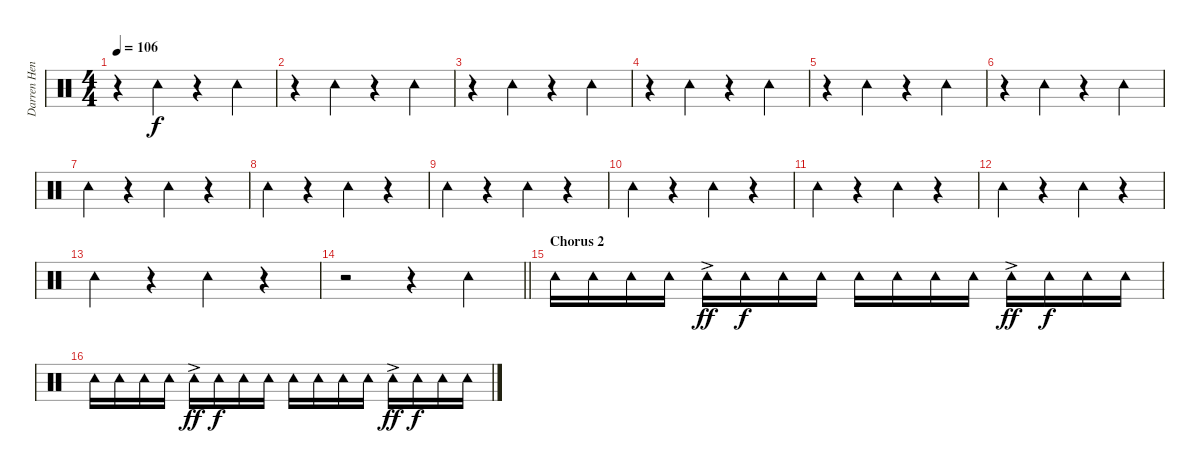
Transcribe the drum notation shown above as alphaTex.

\track ("Darren Henley [Percussion]" "Darren Hen") {instrument percussion}
\staff {score}
\articulation defaults
\ts (4 4)
\tempo 106
\clef neutral
\ks c
r.4{dy f} "Tambourine (hit)".4 r.4 "Tambourine (hit)".4 |
r.4 "Tambourine (hit)".4 r.4 "Tambourine (hit)".4 |
r.4 "Tambourine (hit)".4 r.4 "Tambourine (hit)".4 |
r.4 "Tambourine (hit)".4 r.4 "Tambourine (hit)".4 |
r.4 "Tambourine (hit)".4 r.4 "Tambourine (hit)".4 |
r.4 "Tambourine (hit)".4 r.4 "Tambourine (hit)".4 |
"Tambourine (hit)".4 r.4 "Tambourine (hit)".4 r.4 |
"Tambourine (hit)".4 r.4 "Tambourine (hit)".4 r.4 |
"Tambourine (hit)".4 r.4 "Tambourine (hit)".4 r.4 |
"Tambourine (hit)".4 r.4 "Tambourine (hit)".4 r.4 |
"Tambourine (hit)".4 r.4 "Tambourine (hit)".4 r.4 |
"Tambourine (hit)".4 r.4 "Tambourine (hit)".4 r.4 |
"Tambourine (hit)".4 r.4 "Tambourine (hit)".4 r.4 |
\barLineRight lightlight
r.2 r.4 "Tambourine (hit)".4 |
\section ("" "Chorus 2")
"Tambourine (hit)".16 "Tambourine (hit)".16 "Tambourine (hit)".16 "Tambourine (hit)".16 "Tambourine (hit)"{ac}.16{dy ff} "Tambourine (hit)".16{dy f} "Tambourine (hit)".16 "Tambourine (hit)".16 "Tambourine (hit)".16 "Tambourine (hit)".16 "Tambourine (hit)".16 "Tambourine (hit)".16 "Tambourine (hit)"{ac}.16{dy ff} "Tambourine (hit)".16{dy f} "Tambourine (hit)".16 "Tambourine (hit)".16 |
"Tambourine (hit)".16 "Tambourine (hit)".16 "Tambourine (hit)".16 "Tambourine (hit)".16 "Tambourine (hit)"{ac}.16{dy ff} "Tambourine (hit)".16{dy f} "Tambourine (hit)".16 "Tambourine (hit)".16 "Tambourine (hit)".16 "Tambourine (hit)".16 "Tambourine (hit)".16 "Tambourine (hit)".16 "Tambourine (hit)"{ac}.16{dy ff} "Tambourine (hit)".16{dy f} "Tambourine (hit)".16 "Tambourine (hit)".16
